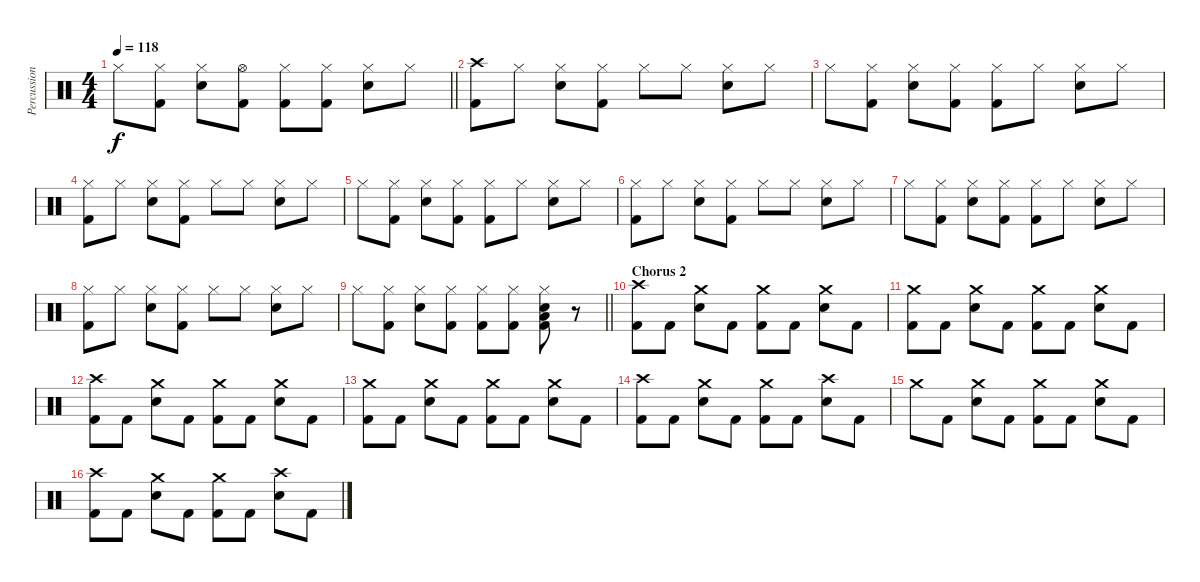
\track ("Percussion" "Percussion") {instrument percussion}
\staff {score}
\articulation defaults
\ts (4 4)
\tempo 118
\clef neutral
\barLineRight lightlight
\ks c "Hi-Hat (closed)".8{dy f}
("Hi-Hat (closed)" "Kick (hit) 2").8 ("Hi-Hat (closed)" "Electric Snare (hit)").8 ("Hi-Hat (open)" "Kick (hit) 2").8 ("Hi-Hat (closed)" "Kick (hit) 2").8 ("Hi-Hat (closed)" "Kick (hit) 2").8 ("Hi-Hat (closed)" "Electric Snare (hit)").8 "Hi-Hat (closed)".8 |
("Crash high (hit)" "Kick (hit) 2").8 "Hi-Hat (closed)".8 ("Hi-Hat (closed)" "Electric Snare (hit)").8 ("Hi-Hat (closed)" "Kick (hit) 2").8 "Hi-Hat (closed)".8 "Hi-Hat (closed)".8 ("Hi-Hat (closed)" "Electric Snare (hit)").8 "Hi-Hat (closed)".8 |
"Hi-Hat (closed)".8 ("Hi-Hat (closed)" "Kick (hit) 2").8 ("Hi-Hat (closed)" "Electric Snare (hit)").8 ("Hi-Hat (closed)" "Kick (hit) 2").8 ("Hi-Hat (closed)" "Kick (hit) 2").8 "Hi-Hat (closed)".8 ("Hi-Hat (closed)" "Electric Snare (hit)").8 "Hi-Hat (closed)".8 |
("Hi-Hat (closed)" "Kick (hit) 2").8 "Hi-Hat (closed)".8 ("Hi-Hat (closed)" "Electric Snare (hit)").8 ("Hi-Hat (closed)" "Kick (hit) 2").8 "Hi-Hat (closed)".8 "Hi-Hat (closed)".8 ("Hi-Hat (closed)" "Electric Snare (hit)").8 "Hi-Hat (closed)".8 |
"Hi-Hat (closed)".8 ("Hi-Hat (closed)" "Kick (hit) 2").8 ("Hi-Hat (closed)" "Electric Snare (hit)").8 ("Hi-Hat (closed)" "Kick (hit) 2").8 ("Hi-Hat (closed)" "Kick (hit) 2").8 "Hi-Hat (closed)".8 ("Hi-Hat (closed)" "Electric Snare (hit)").8 "Hi-Hat (closed)".8 |
("Hi-Hat (closed)" "Kick (hit) 2").8 "Hi-Hat (closed)".8 ("Hi-Hat (closed)" "Electric Snare (hit)").8 ("Hi-Hat (closed)" "Kick (hit) 2").8 "Hi-Hat (closed)".8 "Hi-Hat (closed)".8 ("Hi-Hat (closed)" "Electric Snare (hit)").8 "Hi-Hat (closed)".8 |
"Hi-Hat (closed)".8 ("Hi-Hat (closed)" "Kick (hit) 2").8 ("Hi-Hat (closed)" "Electric Snare (hit)").8 ("Hi-Hat (closed)" "Kick (hit) 2").8 ("Hi-Hat (closed)" "Kick (hit) 2").8 "Hi-Hat (closed)".8 ("Hi-Hat (closed)" "Electric Snare (hit)").8 "Hi-Hat (closed)".8 |
("Hi-Hat (closed)" "Kick (hit) 2").8 "Hi-Hat (closed)".8 ("Hi-Hat (closed)" "Electric Snare (hit)").8 ("Hi-Hat (closed)" "Kick (hit) 2").8 "Hi-Hat (closed)".8 "Hi-Hat (closed)".8 ("Hi-Hat (closed)" "Electric Snare (hit)").8 "Hi-Hat (closed)".8 |
\barLineRight lightlight "Hi-Hat (closed)".8
("Hi-Hat (closed)" "Kick (hit) 2").8 ("Hi-Hat (closed)" "Electric Snare (hit)").8 ("Hi-Hat (closed)" "Kick (hit) 2").8 ("Hi-Hat (closed)" "Kick (hit) 2").8 ("Hi-Hat (closed)" "Kick (hit) 2").8 ("Hi-Hat (closed)" "Electric Snare (hit)" "Low Floor Tom (hit)" "Kick (hit) 2").8 r.8 |
\section ("" "Chorus 2")
("Crash high (hit)" "Kick (hit) 2").8 "Kick (hit) 2".8 ("Crash medium (hit)" "Electric Snare (hit)").8 "Kick (hit) 2".8 ("Crash medium (hit)" "Kick (hit) 2").8 "Kick (hit) 2".8 ("Crash medium (hit)" "Electric Snare (hit)").8 "Kick (hit) 2".8 |
("Crash medium (hit)" "Kick (hit) 2").8 "Kick (hit) 2".8 ("Crash medium (hit)" "Electric Snare (hit)").8 "Kick (hit) 2".8 ("Crash medium (hit)" "Kick (hit) 2").8 "Kick (hit) 2".8 ("Crash medium (hit)" "Electric Snare (hit)").8 "Kick (hit) 2".8 |
("Crash high (hit)" "Kick (hit) 2").8 "Kick (hit) 2".8 ("Crash medium (hit)" "Electric Snare (hit)").8 "Kick (hit) 2".8 ("Crash medium (hit)" "Kick (hit) 2").8 "Kick (hit) 2".8 ("Crash medium (hit)" "Electric Snare (hit)").8 "Kick (hit) 2".8 |
("Crash medium (hit)" "Kick (hit) 2").8 "Kick (hit) 2".8 ("Crash medium (hit)" "Electric Snare (hit)").8 "Kick (hit) 2".8 ("Crash medium (hit)" "Kick (hit) 2").8 "Kick (hit) 2".8 ("Crash medium (hit)" "Electric Snare (hit)").8 "Kick (hit) 2".8 |
("Crash high (hit)" "Kick (hit) 2").8 "Kick (hit) 2".8 ("Crash medium (hit)" "Electric Snare (hit)").8 "Kick (hit) 2".8 ("Crash medium (hit)" "Kick (hit) 2").8 "Kick (hit) 2".8 ("Crash high (hit)" "Electric Snare (hit)").8 "Kick (hit) 2".8 |
"Crash medium (hit)".8 "Kick (hit) 2".8 ("Crash medium (hit)" "Electric Snare (hit)").8 "Kick (hit) 2".8 ("Crash medium (hit)" "Kick (hit) 2").8 "Kick (hit) 2".8 ("Crash medium (hit)" "Electric Snare (hit)").8 "Kick (hit) 2".8 |
("Crash high (hit)" "Kick (hit) 2").8 "Kick (hit) 2".8 ("Crash medium (hit)" "Electric Snare (hit)").8 "Kick (hit) 2".8 ("Crash medium (hit)" "Kick (hit) 2").8 "Kick (hit) 2".8 ("Crash high (hit)" "Electric Snare (hit)").8 "Kick (hit) 2".8
